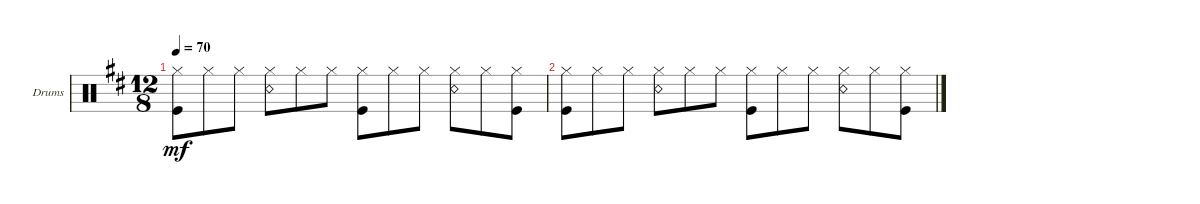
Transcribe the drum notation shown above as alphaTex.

\defaultSystemsLayout 4
\bracketExtendMode groupsimilarinstruments
\firstSystemTrackNameOrientation horizontal
\otherSystemsTrackNameOrientation horizontal
\track ("Drumkit" "Drums") {instrument percussion}
\staff {score}
\articulation defaults
\ts (12 8)
\tempo 70
\clef neutral
\ks d
("Hi-Hat (closed)" "Kick (hit)").8{dy mf} "Hi-Hat (closed)".8 "Hi-Hat (closed)".8 ("Hi-Hat (closed)" "Snare (rim shot)").8 "Hi-Hat (closed)".8 "Hi-Hat (closed)".8 ("Hi-Hat (closed)" "Kick (hit)").8 "Hi-Hat (closed)".8 "Hi-Hat (closed)".8 ("Snare (rim shot)" "Hi-Hat (closed)").8 "Hi-Hat (closed)".8 ("Hi-Hat (closed)" "Kick (hit)").8 |
("Hi-Hat (closed)" "Kick (hit)").8 "Hi-Hat (closed)".8 "Hi-Hat (closed)".8 ("Hi-Hat (closed)" "Snare (rim shot)").8 "Hi-Hat (closed)".8 "Hi-Hat (closed)".8 ("Hi-Hat (closed)" "Kick (hit)").8 "Hi-Hat (closed)".8 "Hi-Hat (closed)".8 ("Snare (rim shot)" "Hi-Hat (closed)").8 "Hi-Hat (closed)".8 ("Hi-Hat (closed)" "Kick (hit)").8
